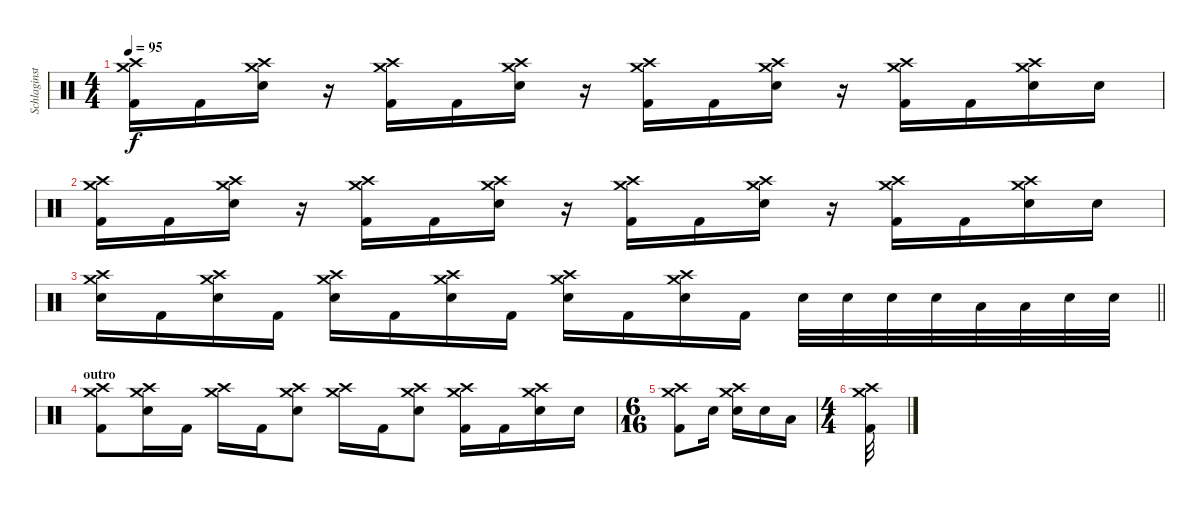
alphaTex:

\track ("Schlaginstrumente - Auswahl" "Schlaginst") {instrument percussion}
\staff {score}
\articulation defaults
\ts (4 4)
\tempo 95
\clef neutral
\ks c
("Crash high (hit)" "Crash medium (hit)" "Kick (hit) 2").16{dy f} "Kick (hit) 2".16 ("Crash high (hit)" "Crash medium (hit)" "Electric Snare (hit)").16 r.16 ("Crash high (hit)" "Crash medium (hit)" "Kick (hit) 2").16 "Kick (hit) 2".16 ("Crash high (hit)" "Crash medium (hit)" "Electric Snare (hit)").16 r.16 ("Crash high (hit)" "Crash medium (hit)" "Kick (hit) 2").16 "Kick (hit) 2".16 ("Crash high (hit)" "Crash medium (hit)" "Electric Snare (hit)").16 r.16 ("Crash high (hit)" "Crash medium (hit)" "Kick (hit) 2").16 "Kick (hit) 2".16 ("Crash high (hit)" "Crash medium (hit)" "Electric Snare (hit)").16 "Electric Snare (hit)".16 |
("Crash high (hit)" "Crash medium (hit)" "Kick (hit) 2").16 "Kick (hit) 2".16 ("Crash high (hit)" "Crash medium (hit)" "Electric Snare (hit)").16 r.16 ("Crash high (hit)" "Crash medium (hit)" "Kick (hit) 2").16 "Kick (hit) 2".16 ("Crash high (hit)" "Crash medium (hit)" "Electric Snare (hit)").16 r.16 ("Crash high (hit)" "Crash medium (hit)" "Kick (hit) 2").16 "Kick (hit) 2".16 ("Crash high (hit)" "Crash medium (hit)" "Electric Snare (hit)").16 r.16 ("Crash high (hit)" "Crash medium (hit)" "Kick (hit) 2").16 "Kick (hit) 2".16 ("Crash high (hit)" "Crash medium (hit)" "Electric Snare (hit)").16 "Electric Snare (hit)".16 |
\barLineRight lightlight
("Crash high (hit)" "Crash medium (hit)" "Electric Snare (hit)").16 "Kick (hit) 2".16 ("Crash high (hit)" "Crash medium (hit)" "Electric Snare (hit)").16 "Kick (hit) 2".16 ("Crash high (hit)" "Crash medium (hit)" "Electric Snare (hit)").16 "Kick (hit) 2".16 ("Crash high (hit)" "Crash medium (hit)" "Electric Snare (hit)").16 "Kick (hit) 2".16 ("Crash high (hit)" "Crash medium (hit)" "Electric Snare (hit)").16 "Kick (hit) 2".16 ("Crash high (hit)" "Crash medium (hit)" "Electric Snare (hit)").16 "Kick (hit) 2".16 "Electric Snare (hit)".32 "Electric Snare (hit)".32 "Electric Snare (hit)".32 "Electric Snare (hit)".32 "Low Tom (hit)".32 "Low Tom (hit)".32 "Snare (hit) 2".32 "Snare (hit) 2".32 |
\section ("" "outro")
("Crash high (hit)" "Crash medium (hit)" "Kick (hit) 2").8 ("Crash high (hit)" "Crash medium (hit)" "Electric Snare (hit)").16 "Kick (hit) 2".16 ("Crash high (hit)" "Crash medium (hit)").16 "Kick (hit) 2".16 ("Crash high (hit)" "Crash medium (hit)" "Electric Snare (hit)").8 ("Crash high (hit)" "Crash medium (hit)").16 "Kick (hit) 2".16 ("Crash high (hit)" "Crash medium (hit)" "Electric Snare (hit)").8 ("Crash high (hit)" "Crash medium (hit)" "Kick (hit) 2").16 "Kick (hit) 2".16 ("Crash high (hit)" "Crash medium (hit)" "Electric Snare (hit)").16 "Electric Snare (hit)".16 |
\ts (6 16)
("Crash high (hit)" "Crash medium (hit)" "Kick (hit) 2").8 "Electric Snare (hit)".16 ("Crash high (hit)" "Crash medium (hit)" "Snare (hit) 2").16 "Snare (hit) 2".16 "Low Tom (hit)".16 |
\ts (4 4)
("Crash high (hit)" "Crash medium (hit)" "Kick (hit) 2").32
